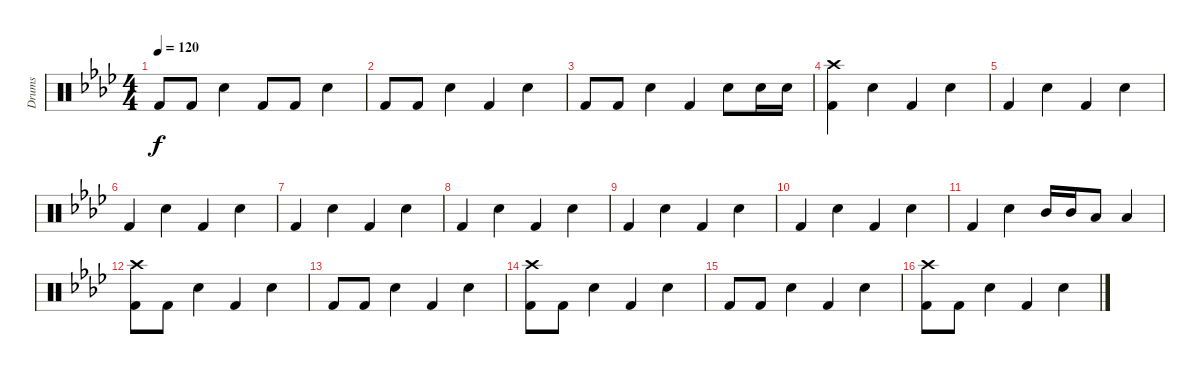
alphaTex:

\track ("Drums" "Drums") {instrument percussion}
\staff {score}
\articulation defaults
\ts (4 4)
\tempo 120
\clef neutral
\ks ab "Kick (hit) 2".8{dy f} "Kick (hit) 2".8 "Electric Snare (hit)".4 "Kick (hit) 2".8 "Kick (hit) 2".8 "Electric Snare (hit)".4
|
"Kick (hit) 2".8 "Kick (hit) 2".8 "Electric Snare (hit)".4 "Kick (hit) 2".4 "Electric Snare (hit)".4 |
"Kick (hit) 2".8 "Kick (hit) 2".8 "Electric Snare (hit)".4 "Kick (hit) 2".4 "Electric Snare (hit)".8 "Electric Snare (hit)".16 "Electric Snare (hit)".16 |
("Crash high (hit)" "Kick (hit) 2").4 "Electric Snare (hit)".4 "Kick (hit) 2".4 "Electric Snare (hit)".4 |
"Kick (hit) 2".4 "Electric Snare (hit)".4 "Kick (hit) 2".4 "Electric Snare (hit)".4 |
"Kick (hit) 2".4 "Electric Snare (hit)".4 "Kick (hit) 2".4 "Electric Snare (hit)".4 |
"Kick (hit) 2".4 "Electric Snare (hit)".4 "Kick (hit) 2".4 "Electric Snare (hit)".4 |
"Kick (hit) 2".4 "Electric Snare (hit)".4 "Kick (hit) 2".4 "Electric Snare (hit)".4 |
"Kick (hit) 2".4 "Electric Snare (hit)".4 "Kick (hit) 2".4 "Electric Snare (hit)".4 |
"Kick (hit) 2".4 "Electric Snare (hit)".4 "Kick (hit) 2".4 "Electric Snare (hit)".4 |
"Kick (hit) 2".4 "Electric Snare (hit)".4 "Mid Tom (hit)".16 "Mid Tom (hit)".16 "Low Tom (hit)".8 "Low Tom (hit)".4 |
("Crash high (hit)" "Kick (hit) 2").8 "Kick (hit) 2".8 "Electric Snare (hit)".4 "Kick (hit) 2".4 "Electric Snare (hit)".4 |
"Kick (hit) 2".8 "Kick (hit) 2".8 "Electric Snare (hit)".4 "Kick (hit) 2".4 "Electric Snare (hit)".4 |
("Crash high (hit)" "Kick (hit) 2").8 "Kick (hit) 2".8 "Electric Snare (hit)".4 "Kick (hit) 2".4 "Electric Snare (hit)".4 |
"Kick (hit) 2".8 "Kick (hit) 2".8 "Electric Snare (hit)".4 "Kick (hit) 2".4 "Electric Snare (hit)".4 |
("Crash high (hit)" "Kick (hit) 2").8 "Kick (hit) 2".8 "Electric Snare (hit)".4 "Kick (hit) 2".4 "Electric Snare (hit)".4
